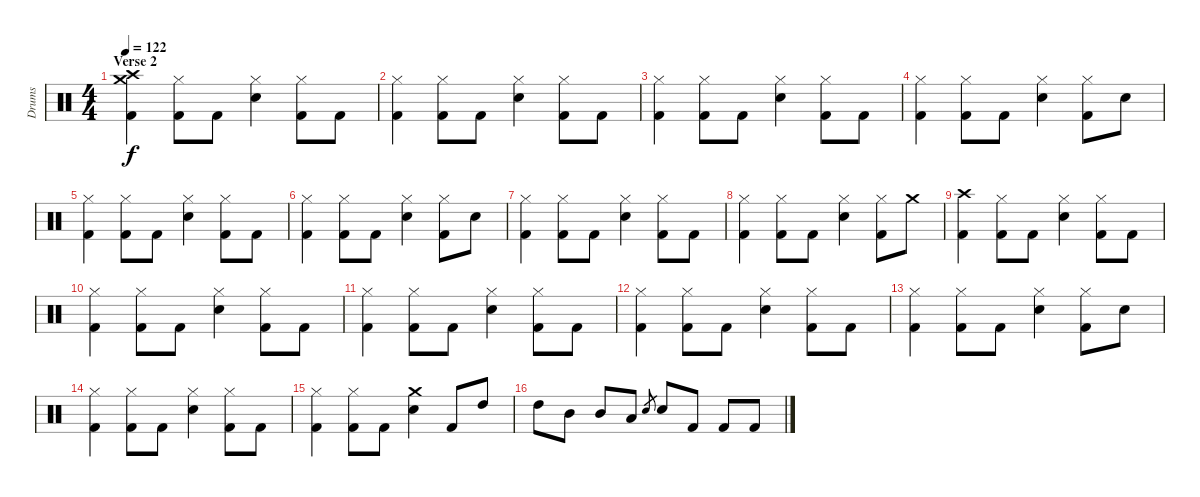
\track ("Drums" "Drums") {instrument percussion}
\staff {score}
\articulation defaults
\ts (4 4)
\section ("" "Verse 2")
\tempo 122
\clef neutral
\ks c
("Crash high (hit)" "Crash medium (hit)" "Kick (hit) 2").4{dy f} ("Hi-Hat (closed)" "Kick (hit) 2").8 "Kick (hit) 2".8 ("Hi-Hat (closed)" "Snare (hit) 2").4 ("Hi-Hat (closed)" "Kick (hit) 2").8 "Kick (hit) 2".8 |
("Hi-Hat (closed)" "Kick (hit) 2").4 ("Hi-Hat (closed)" "Kick (hit) 2").8 "Kick (hit) 2".8 ("Hi-Hat (closed)" "Snare (hit) 2").4 ("Hi-Hat (closed)" "Kick (hit) 2").8 "Kick (hit) 2".8 |
("Hi-Hat (closed)" "Kick (hit) 2").4 ("Hi-Hat (closed)" "Kick (hit) 2").8 "Kick (hit) 2".8 ("Hi-Hat (closed)" "Snare (hit) 2").4 ("Hi-Hat (closed)" "Kick (hit) 2").8 "Kick (hit) 2".8 |
("Hi-Hat (closed)" "Kick (hit) 2").4 ("Hi-Hat (closed)" "Kick (hit) 2").8 "Kick (hit) 2".8 ("Hi-Hat (closed)" "Snare (hit) 2").4 ("Hi-Hat (closed)" "Kick (hit) 2").8 "Snare (hit) 2".8 |
("Hi-Hat (closed)" "Kick (hit) 2").4 ("Hi-Hat (closed)" "Kick (hit) 2").8 "Kick (hit) 2".8 ("Hi-Hat (closed)" "Snare (hit) 2").4 ("Hi-Hat (closed)" "Kick (hit) 2").8 "Kick (hit) 2".8 |
("Hi-Hat (closed)" "Kick (hit) 2").4 ("Hi-Hat (closed)" "Kick (hit) 2").8 "Kick (hit) 2".8 ("Hi-Hat (closed)" "Snare (hit) 2").4 ("Hi-Hat (closed)" "Kick (hit) 2").8 "Snare (hit) 2".8 |
("Hi-Hat (closed)" "Kick (hit) 2").4 ("Hi-Hat (closed)" "Kick (hit) 2").8 "Kick (hit) 2".8 ("Hi-Hat (closed)" "Snare (hit) 2").4 ("Hi-Hat (closed)" "Kick (hit) 2").8 "Kick (hit) 2".8 |
("Hi-Hat (closed)" "Kick (hit) 2").4 ("Hi-Hat (closed)" "Kick (hit) 2").8 "Kick (hit) 2".8 ("Hi-Hat (closed)" "Snare (hit) 2").4 ("Hi-Hat (closed)" "Kick (hit) 2").8 "Crash medium (hit)".8 |
("Crash high (hit)" "Kick (hit) 2").4 ("Hi-Hat (closed)" "Kick (hit) 2").8 "Kick (hit) 2".8 ("Hi-Hat (closed)" "Snare (hit) 2").4 ("Hi-Hat (closed)" "Kick (hit) 2").8 "Kick (hit) 2".8 |
("Hi-Hat (closed)" "Kick (hit) 2").4 ("Hi-Hat (closed)" "Kick (hit) 2").8 "Kick (hit) 2".8 ("Hi-Hat (closed)" "Snare (hit) 2").4 ("Hi-Hat (closed)" "Kick (hit) 2").8 "Kick (hit) 2".8 |
("Hi-Hat (closed)" "Kick (hit) 2").4 ("Hi-Hat (closed)" "Kick (hit) 2").8 "Kick (hit) 2".8 ("Hi-Hat (closed)" "Snare (hit) 2").4 ("Hi-Hat (closed)" "Kick (hit) 2").8 "Kick (hit) 2".8 |
("Hi-Hat (closed)" "Kick (hit) 2").4 ("Hi-Hat (closed)" "Kick (hit) 2").8 "Kick (hit) 2".8 ("Hi-Hat (closed)" "Snare (hit) 2").4 ("Hi-Hat (closed)" "Kick (hit) 2").8 "Kick (hit) 2".8 |
("Hi-Hat (closed)" "Kick (hit) 2").4 ("Hi-Hat (closed)" "Kick (hit) 2").8 "Kick (hit) 2".8 ("Hi-Hat (closed)" "Snare (hit) 2").4 ("Hi-Hat (closed)" "Kick (hit) 2").8 "Snare (hit) 2".8 |
("Hi-Hat (closed)" "Kick (hit) 2").4 ("Hi-Hat (closed)" "Kick (hit) 2").8 "Kick (hit) 2".8 ("Hi-Hat (closed)" "Snare (hit) 2").4 ("Hi-Hat (closed)" "Kick (hit) 2").8 "Kick (hit) 2".8 |
("Hi-Hat (closed)" "Kick (hit) 2").4 ("Hi-Hat (closed)" "Kick (hit) 2").8 "Kick (hit) 2".8 ("Crash medium (hit)" "Snare (hit) 2").4 "Kick (hit) 2".8 "High Tom (hit)".8 |
"High Tom (hit)".8 "Mid Tom (hit)".8 "Mid Tom (hit)".8 "Low Tom (hit)".8 "Snare (hit) 2".8{gr} "Snare (hit) 2".8 "Kick (hit) 2".8 "Kick (hit) 2".8 "Kick (hit) 2".8
